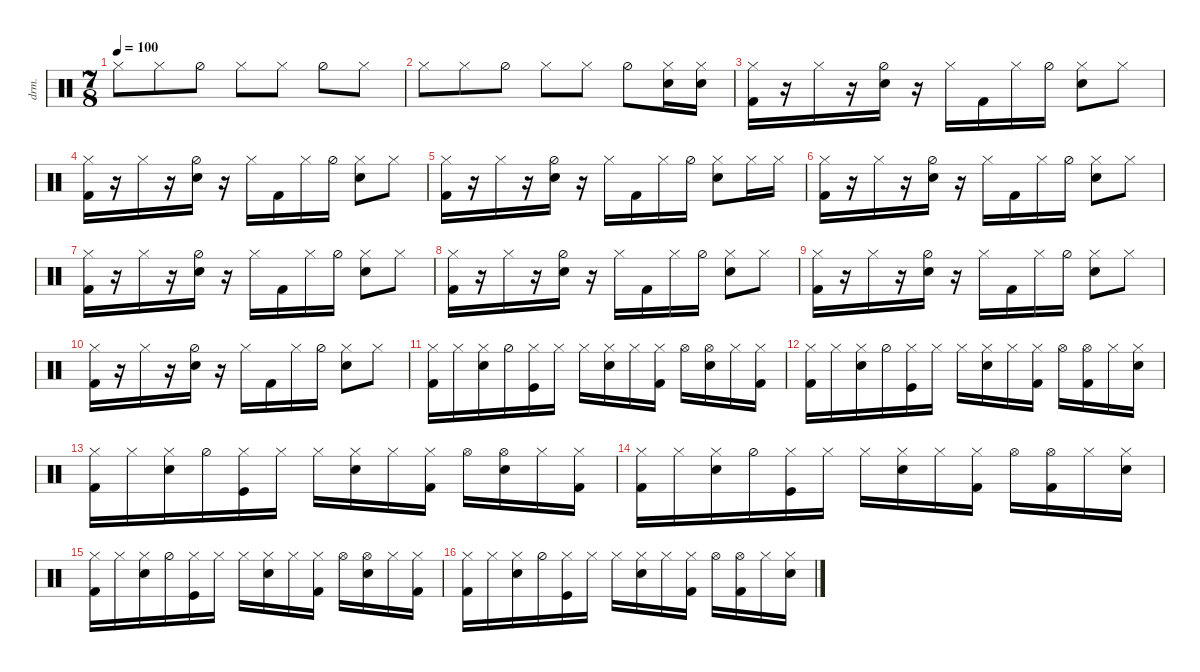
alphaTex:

\defaultSystemsLayout 4
\hideDynamics
\bracketExtendMode nobrackets
\otherSystemsTrackNameOrientation horizontal
\track ("Drumkit" "drm.") {instrument percussion}
\staff {score}
\articulation defaults
\ts (7 8)
\beaming (8 3 2 2)
\tempo 100
\clef neutral
\ks c "Hi-Hat (closed)".8{dy mf beam Down} "Hi-Hat (closed)".8{beam Down} "Hi-Hat (half)".8{beam Down} "Hi-Hat (closed)".8{beam Down} "Hi-Hat (closed)".8{beam Down} "Hi-Hat (half)".8{beam Down} "Hi-Hat (closed)".8{beam Down}
|
"Hi-Hat (closed)".8{beam Down} "Hi-Hat (closed)".8{beam Down} "Hi-Hat (half)".8{beam Down} "Hi-Hat (closed)".8{beam Down} "Hi-Hat (closed)".8{beam Down} "Hi-Hat (half)".8{beam Down} ("Hi-Hat (closed)" "Snare (hit) 2").16{beam Down} ("Hi-Hat (closed)" "Snare (hit) 2").16{beam Down} |
("Hi-Hat (closed)" "Kick (hit) 2").16{beam Down} r.16{beam Down} "Hi-Hat (closed)".16{beam Down} r.16{beam Down} ("Hi-Hat (half)" "Snare (hit) 2").16{beam Down} r.16{beam Down} "Hi-Hat (closed)".16{beam Down} "Kick (hit) 2".16{beam Down} "Hi-Hat (closed)".16{beam Down} "Hi-Hat (half)".16{beam Down} ("Snare (hit) 2" "Hi-Hat (closed)").8{beam Down} "Hi-Hat (closed)".8{beam Down} |
("Hi-Hat (closed)" "Kick (hit) 2").16{beam Down} r.16{beam Down} "Hi-Hat (closed)".16{beam Down} r.16{beam Down} ("Hi-Hat (half)" "Snare (hit) 2").16{beam Down} r.16{beam Down} "Hi-Hat (closed)".16{beam Down} "Kick (hit) 2".16{beam Down} "Hi-Hat (closed)".16{beam Down} "Hi-Hat (half)".16{beam Down} ("Snare (hit) 2" "Hi-Hat (closed)").8{beam Down} "Hi-Hat (closed)".8{beam Down} |
("Hi-Hat (closed)" "Kick (hit) 2").16{beam Down} r.16{beam Down} "Hi-Hat (closed)".16{beam Down} r.16{beam Down} ("Hi-Hat (half)" "Snare (hit) 2").16{beam Down} r.16{beam Down} "Hi-Hat (closed)".16{beam Down} "Kick (hit) 2".16{beam Down} "Hi-Hat (closed)".16{beam Down} "Hi-Hat (half)".16{beam Down} ("Snare (hit) 2" "Hi-Hat (closed)").8{beam Down} "Hi-Hat (closed)".16{beam Down} "Hi-Hat (closed)".16{beam Down} |
("Hi-Hat (closed)" "Kick (hit) 2").16{beam Down} r.16{beam Down} "Hi-Hat (closed)".16{beam Down} r.16{beam Down} ("Hi-Hat (half)" "Snare (hit) 2").16{beam Down} r.16{beam Down} "Hi-Hat (closed)".16{beam Down} "Kick (hit) 2".16{beam Down} "Hi-Hat (closed)".16{beam Down} "Hi-Hat (half)".16{beam Down} ("Snare (hit) 2" "Hi-Hat (closed)").8{beam Down} "Hi-Hat (closed)".8{beam Down} |
("Hi-Hat (closed)" "Kick (hit) 2").16{beam Down} r.16{beam Down} "Hi-Hat (closed)".16{beam Down} r.16{beam Down} ("Hi-Hat (half)" "Snare (hit) 2").16{beam Down} r.16{beam Down} "Hi-Hat (closed)".16{beam Down} "Kick (hit) 2".16{beam Down} "Hi-Hat (closed)".16{beam Down} "Hi-Hat (half)".16{beam Down} ("Snare (hit) 2" "Hi-Hat (closed)").8{beam Down} "Hi-Hat (closed)".8{beam Down} |
("Hi-Hat (closed)" "Kick (hit) 2").16{beam Down} r.16{beam Down} "Hi-Hat (closed)".16{beam Down} r.16{beam Down} ("Hi-Hat (half)" "Snare (hit) 2").16{beam Down} r.16{beam Down} "Hi-Hat (closed)".16{beam Down} "Kick (hit) 2".16{beam Down} "Hi-Hat (closed)".16{beam Down} "Hi-Hat (half)".16{beam Down} ("Snare (hit) 2" "Hi-Hat (closed)").8{beam Down} "Hi-Hat (closed)".8{beam Down} |
("Hi-Hat (closed)" "Kick (hit) 2").16{beam Down} r.16{beam Down} "Hi-Hat (closed)".16{beam Down} r.16{beam Down} ("Hi-Hat (half)" "Snare (hit) 2").16{beam Down} r.16{beam Down} "Hi-Hat (closed)".16{beam Down} "Kick (hit) 2".16{beam Down} "Hi-Hat (closed)".16{beam Down} "Hi-Hat (half)".16{beam Down} ("Snare (hit) 2" "Hi-Hat (closed)").8{beam Down} "Hi-Hat (closed)".8{beam Down} |
("Hi-Hat (closed)" "Kick (hit) 2").16{beam Down} r.16{beam Down} "Hi-Hat (closed)".16{beam Down} r.16{beam Down} ("Hi-Hat (half)" "Snare (hit) 2").16{beam Down} r.16{beam Down} "Hi-Hat (closed)".16{beam Down} "Kick (hit) 2".16{beam Down} "Hi-Hat (closed)".16{beam Down} "Hi-Hat (half)".16{beam Down} ("Snare (hit) 2" "Hi-Hat (closed)").8{beam Down} "Hi-Hat (closed)".8{beam Down} |
("Hi-Hat (closed)" "Kick (hit) 2").16{beam Down} "Hi-Hat (closed)".16{beam Down} ("Hi-Hat (closed)" "Snare (hit) 2").16{beam Down} "Hi-Hat (half)".16{beam Down} ("Hi-Hat (closed)" "Kick (hit)").16{beam Down} "Hi-Hat (closed)".16{beam Down} "Hi-Hat (closed)".16{beam Down} ("Hi-Hat (closed)" "Snare (hit) 2").16{beam Down} "Hi-Hat (closed)".16{beam Down} ("Hi-Hat (closed)" "Kick (hit) 2").16{beam Down} "Hi-Hat (open)".16{beam Down} ("Hi-Hat (open)" "Snare (hit) 2").16{beam Down} "Hi-Hat (closed)".16{beam Down} ("Hi-Hat (closed)" "Kick (hit) 2").16{beam Down} |
("Hi-Hat (closed)" "Kick (hit) 2").16{beam Down} "Hi-Hat (closed)".16{beam Down} ("Hi-Hat (closed)" "Snare (hit) 2").16{beam Down} "Hi-Hat (half)".16{beam Down} ("Hi-Hat (closed)" "Kick (hit)").16{beam Down} "Hi-Hat (closed)".16{beam Down} "Hi-Hat (closed)".16{beam Down} ("Hi-Hat (closed)" "Snare (hit) 2").16{beam Down} "Hi-Hat (closed)".16{beam Down} ("Hi-Hat (closed)" "Kick (hit) 2").16{beam Down} "Hi-Hat (open)".16{beam Down} ("Hi-Hat (open)" "Kick (hit) 2").16{beam Down} "Hi-Hat (closed)".16{beam Down} ("Hi-Hat (closed)" "Snare (hit) 2").16{beam Down} |
("Hi-Hat (closed)" "Kick (hit) 2").16{beam Down} "Hi-Hat (closed)".16{beam Down} ("Hi-Hat (closed)" "Snare (hit) 2").16{beam Down} "Hi-Hat (half)".16{beam Down} ("Hi-Hat (closed)" "Kick (hit)").16{beam Down} "Hi-Hat (closed)".16{beam Down} "Hi-Hat (closed)".16{beam Down} ("Hi-Hat (closed)" "Snare (hit) 2").16{beam Down} "Hi-Hat (closed)".16{beam Down} ("Hi-Hat (closed)" "Kick (hit) 2").16{beam Down} "Hi-Hat (open)".16{beam Down} ("Hi-Hat (open)" "Snare (hit) 2").16{beam Down} "Hi-Hat (closed)".16{beam Down} ("Hi-Hat (closed)" "Kick (hit) 2").16{beam Down} |
("Hi-Hat (closed)" "Kick (hit) 2").16{beam Down} "Hi-Hat (closed)".16{beam Down} ("Hi-Hat (closed)" "Snare (hit) 2").16{beam Down} "Hi-Hat (half)".16{beam Down} ("Hi-Hat (closed)" "Kick (hit)").16{beam Down} "Hi-Hat (closed)".16{beam Down} "Hi-Hat (closed)".16{beam Down} ("Hi-Hat (closed)" "Snare (hit) 2").16{beam Down} "Hi-Hat (closed)".16{beam Down} ("Hi-Hat (closed)" "Kick (hit) 2").16{beam Down} "Hi-Hat (open)".16{beam Down} ("Hi-Hat (open)" "Kick (hit) 2").16{beam Down} "Hi-Hat (closed)".16{beam Down} ("Hi-Hat (closed)" "Snare (hit) 2").16{beam Down} |
("Hi-Hat (closed)" "Kick (hit) 2").16{beam Down} "Hi-Hat (closed)".16{beam Down} ("Hi-Hat (closed)" "Snare (hit) 2").16{beam Down} "Hi-Hat (half)".16{beam Down} ("Hi-Hat (closed)" "Kick (hit)").16{beam Down} "Hi-Hat (closed)".16{beam Down} "Hi-Hat (closed)".16{beam Down} ("Hi-Hat (closed)" "Snare (hit) 2").16{beam Down} "Hi-Hat (closed)".16{beam Down} ("Hi-Hat (closed)" "Kick (hit) 2").16{beam Down} "Hi-Hat (open)".16{beam Down} ("Hi-Hat (open)" "Snare (hit) 2").16{beam Down} "Hi-Hat (closed)".16{beam Down} ("Hi-Hat (closed)" "Kick (hit) 2").16{beam Down} |
("Hi-Hat (closed)" "Kick (hit) 2").16{beam Down} "Hi-Hat (closed)".16{beam Down} ("Hi-Hat (closed)" "Snare (hit) 2").16{beam Down} "Hi-Hat (half)".16{beam Down} ("Hi-Hat (closed)" "Kick (hit)").16{beam Down} "Hi-Hat (closed)".16{beam Down} "Hi-Hat (closed)".16{beam Down} ("Hi-Hat (closed)" "Snare (hit) 2").16{beam Down} "Hi-Hat (closed)".16{beam Down} ("Hi-Hat (closed)" "Kick (hit) 2").16{beam Down} "Hi-Hat (open)".16{beam Down} ("Hi-Hat (open)" "Kick (hit) 2").16{beam Down} "Hi-Hat (closed)".16{beam Down} ("Hi-Hat (closed)" "Snare (hit) 2").16{beam Down}
